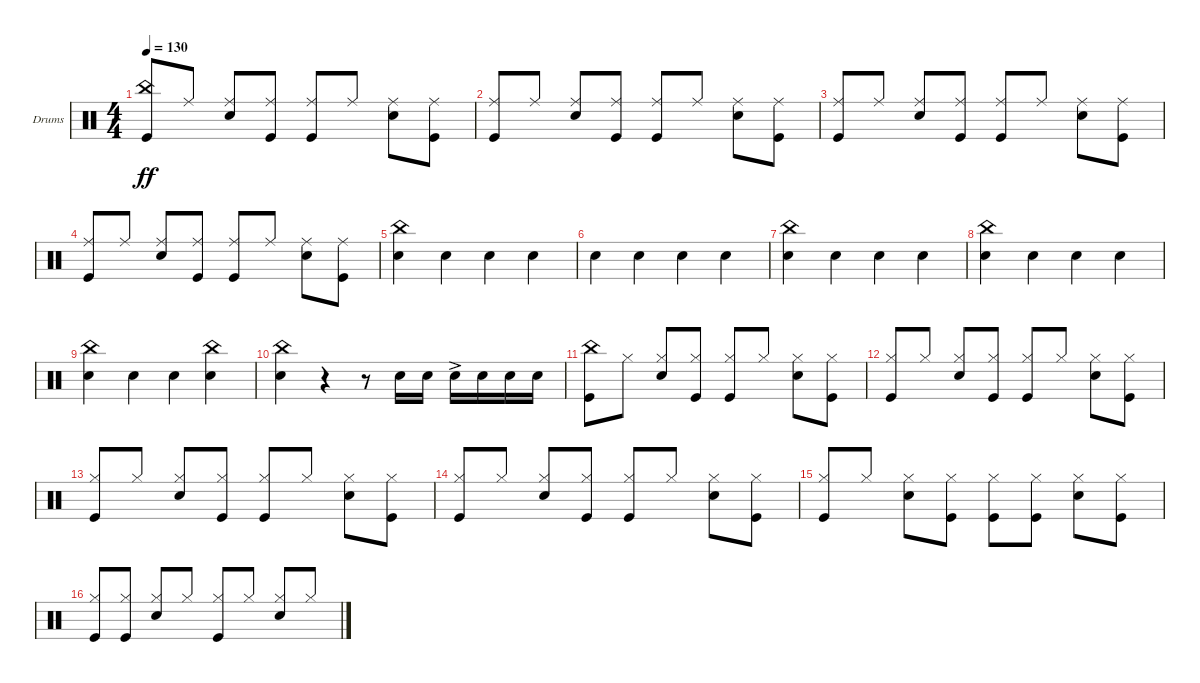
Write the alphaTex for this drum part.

\defaultSystemsLayout 4
\bracketExtendMode groupsimilarinstruments
\firstSystemTrackNameOrientation horizontal
\otherSystemsTrackNameOrientation horizontal
\track ("Drumkit" "Drums") {instrument percussion}
\staff {score}
\articulation defaults
\ts (4 4)
\tempo 130
\clef neutral
\scale
0.333333
\ks c
("Kick (hit)" "China (hit)").8{dy ff beam invert} "Ride (middle)".8 ("Ride (middle)" "Snare (hit) 2").8 ("Ride (middle)" "Kick (hit)").8 ("Ride (middle)" "Kick (hit)").8{beam invert} "Ride (middle)".8 ("Ride (middle)" "Snare (hit) 2").8 ("Ride (middle)" "Kick (hit)").8 |
\scale
0.333333 ("Ride (middle)" "Kick (hit)").8{beam invert} "Ride (middle)".8 ("Ride (middle)" "Snare (hit) 2").8 ("Ride (middle)" "Kick (hit)").8 ("Ride (middle)" "Kick (hit)").8{beam invert} "Ride (middle)".8 ("Ride (middle)" "Snare (hit) 2").8 ("Ride (middle)" "Kick (hit)").8 |
\scale
0.333333 ("Ride (middle)" "Kick (hit)").8{beam invert} "Ride (middle)".8 ("Ride (middle)" "Snare (hit) 2").8 ("Ride (middle)" "Kick (hit)").8 ("Ride (middle)" "Kick (hit)").8{beam invert} "Ride (middle)".8 ("Ride (middle)" "Snare (hit) 2").8 ("Ride (middle)" "Kick (hit)").8 |
\scale
0.333333 ("Ride (middle)" "Kick (hit)").8{beam invert} "Ride (middle)".8 ("Ride (middle)" "Snare (hit) 2").8 ("Ride (middle)" "Kick (hit)").8 ("Ride (middle)" "Kick (hit)").8{beam invert} "Ride (middle)".8 ("Ride (middle)" "Snare (hit) 2").8 ("Ride (middle)" "Kick (hit)").8 |
\scale
0.333333 ("Snare (hit) 2" "China (hit)").4 "Snare (hit) 2".4 "Snare (hit) 2".4 "Snare (hit) 2".4 |
\scale
0.333333 "Snare (hit) 2".4 "Snare (hit) 2".4 "Snare (hit) 2".4 "Snare (hit) 2".4 |
\scale
0.333333 ("Snare (hit) 2" "China (hit)").4 "Snare (hit) 2".4 "Snare (hit) 2".4 "Snare (hit) 2".4 |
\scale
0.333333 ("Snare (hit) 2" "China (hit)").4 "Snare (hit) 2".4 "Snare (hit) 2".4 "Snare (hit) 2".4 |
\scale
0.333333 ("Snare (hit) 2" "China (hit)").4 "Snare (hit) 2".4 "Snare (hit) 2".4 ("Snare (hit) 2" "China (hit)").4 |
\scale
0.333333 ("China (hit)" "Snare (hit) 2").4 r.4 r.8 "Snare (hit) 2".16 "Snare (hit) 2".16 "Snare (hit) 2"{ac}.16 "Snare (hit) 2".16 "Snare (hit) 2".16 "Snare (hit) 2".16 |
\scale
0.333333 ("Kick (hit)" "China (hit)").8 "Hi-Hat (closed)".8 ("Hi-Hat (closed)" "Snare (hit) 2").8 ("Hi-Hat (closed)" "Kick (hit)").8 ("Hi-Hat (closed)" "Kick (hit)").8{beam invert} "Hi-Hat (closed)".8 ("Hi-Hat (closed)" "Snare (hit) 2").8 ("Hi-Hat (closed)" "Kick (hit)").8 |
\scale
0.333333 ("Hi-Hat (closed)" "Kick (hit)").8{beam invert} "Hi-Hat (closed)".8 ("Hi-Hat (closed)" "Snare (hit) 2").8 ("Hi-Hat (closed)" "Kick (hit)").8 ("Hi-Hat (closed)" "Kick (hit)").8{beam invert} "Hi-Hat (closed)".8 ("Hi-Hat (closed)" "Snare (hit) 2").8 ("Hi-Hat (closed)" "Kick (hit)").8 |
\scale
0.333333 ("Hi-Hat (closed)" "Kick (hit)").8{beam invert} "Hi-Hat (closed)".8 ("Hi-Hat (closed)" "Snare (hit) 2").8 ("Hi-Hat (closed)" "Kick (hit)").8 ("Hi-Hat (closed)" "Kick (hit)").8{beam invert} "Hi-Hat (closed)".8 ("Hi-Hat (closed)" "Snare (hit) 2").8 ("Hi-Hat (closed)" "Kick (hit)").8 |
\scale
0.333333 ("Hi-Hat (closed)" "Kick (hit)").8{beam invert} "Hi-Hat (closed)".8 ("Hi-Hat (closed)" "Snare (hit) 2").8 ("Hi-Hat (closed)" "Kick (hit)").8 ("Hi-Hat (closed)" "Kick (hit)").8{beam invert} "Hi-Hat (closed)".8 ("Hi-Hat (closed)" "Snare (hit) 2").8 ("Hi-Hat (closed)" "Kick (hit)").8 |
\scale
0.333333 ("Kick (hit)" "Hi-Hat (closed)").8{beam invert} "Hi-Hat (closed)".8 ("Snare (hit) 2" "Hi-Hat (closed)").8 ("Kick (hit)" "Hi-Hat (closed)").8 ("Kick (hit)" "Hi-Hat (closed)").8 ("Kick (hit)" "Hi-Hat (closed)").8 ("Snare (hit) 2" "Hi-Hat (closed)").8 ("Kick (hit)" "Hi-Hat (closed)").8 |
\scale
0.333333 ("Kick (hit)" "Hi-Hat (closed)").8 ("Kick (hit)" "Hi-Hat (closed)").8 ("Snare (hit) 2" "Hi-Hat (closed)").8{beam invert} "Hi-Hat (closed)".8 ("Hi-Hat (closed)" "Kick (hit)").8{beam invert} "Hi-Hat (closed)".8 ("Hi-Hat (closed)" "Snare (hit) 2").8{beam invert} "Hi-Hat (closed)".8
